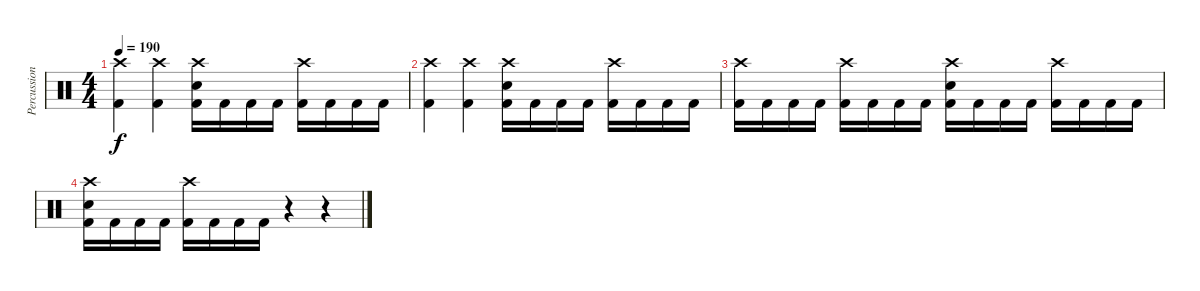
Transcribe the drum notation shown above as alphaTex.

\track ("Percussion" "Percussion") {instrument percussion}
\staff {score}
\articulation defaults
\ts (4 4)
\tempo 190
\clef neutral
\ks c
("Crash high (hit)" "Kick (hit) 2").4{dy f} ("Crash high (hit)" "Kick (hit) 2").4 ("Crash high (hit)" "Snare (hit) 2" "Kick (hit) 2").16 "Kick (hit) 2".16 "Kick (hit) 2".16 "Kick (hit) 2".16 ("Crash high (hit)" "Kick (hit) 2").16 "Kick (hit) 2".16 "Kick (hit) 2".16 "Kick (hit) 2".16 |
("Crash high (hit)" "Kick (hit) 2").4 ("Crash high (hit)" "Kick (hit) 2").4 ("Crash high (hit)" "Snare (hit) 2" "Kick (hit) 2").16 "Kick (hit) 2".16 "Kick (hit) 2".16 "Kick (hit) 2".16 ("Crash high (hit)" "Kick (hit) 2").16 "Kick (hit) 2".16 "Kick (hit) 2".16 "Kick (hit) 2".16 |
("Crash high (hit)" "Kick (hit) 2").16 "Kick (hit) 2".16 "Kick (hit) 2".16 "Kick (hit) 2".16 ("Crash high (hit)" "Kick (hit) 2").16 "Kick (hit) 2".16 "Kick (hit) 2".16 "Kick (hit) 2".16 ("Crash high (hit)" "Snare (hit) 2" "Kick (hit) 2").16 "Kick (hit) 2".16 "Kick (hit) 2".16 "Kick (hit) 2".16 ("Crash high (hit)" "Kick (hit) 2").16 "Kick (hit) 2".16 "Kick (hit) 2".16 "Kick (hit) 2".16 |
("Crash high (hit)" "Snare (hit) 2" "Kick (hit) 2").16 "Kick (hit) 2".16 "Kick (hit) 2".16 "Kick (hit) 2".16 ("Crash high (hit)" "Kick (hit) 2").16 "Kick (hit) 2".16 "Kick (hit) 2".16 "Kick (hit) 2".16 r.4 r.4
